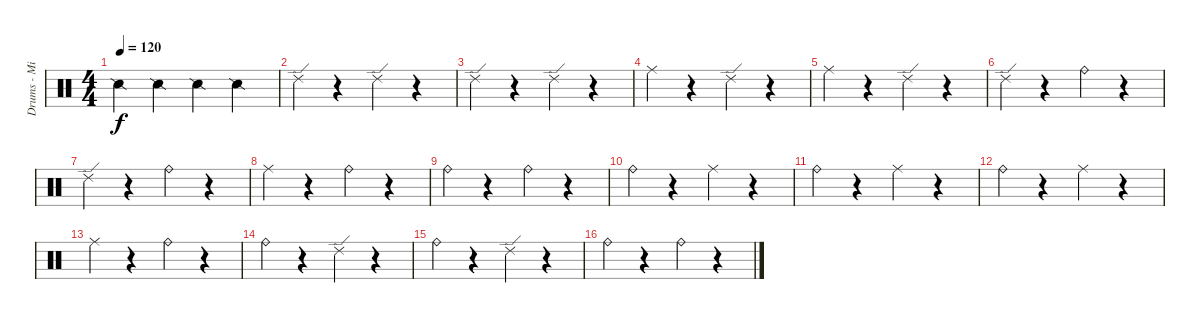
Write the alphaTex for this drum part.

\track ("Drums - Mike Dee" "Drums - Mi") {instrument percussion}
\staff {score}
\articulation defaults
\ts (4 4)
\tempo 120
\clef neutral
\ks c "Snare (side stick) 2".4{dy f} "Snare (side stick) 2".4 "Snare (side stick) 2".4 "Snare (side stick) 2".4
|
"Ride (edge) 2".4 r.4 "Ride (edge) 2".4 r.4 |
"Ride (edge) 2".4 r.4 "Ride (edge) 2".4 r.4 |
"Ride (middle)".4 r.4 "Ride (edge) 2".4 r.4 |
"Ride (middle)".4 r.4 "Ride (edge) 2".4 r.4 |
"Ride (edge) 2".4 r.4 "Ride (bell)".4 r.4 |
"Ride (edge) 2".4 r.4 "Ride (bell)".4 r.4 |
"Ride (middle)".4 r.4 "Ride (bell)".4 r.4 |
"Ride (bell)".4 r.4 "Ride (bell)".4 r.4 |
"Ride (bell)".4 r.4 "Ride (middle)".4 r.4 |
"Ride (bell)".4 r.4 "Ride (middle)".4 r.4 |
"Ride (bell)".4 r.4 "Ride (middle)".4 r.4 |
"Ride (middle)".4 r.4 "Ride (bell)".4 r.4 |
"Ride (bell)".4 r.4 "Ride (edge) 2".4 r.4 |
"Ride (bell)".4 r.4 "Ride (edge) 2".4 r.4 |
"Ride (bell)".4 r.4 "Ride (bell)".4 r.4
